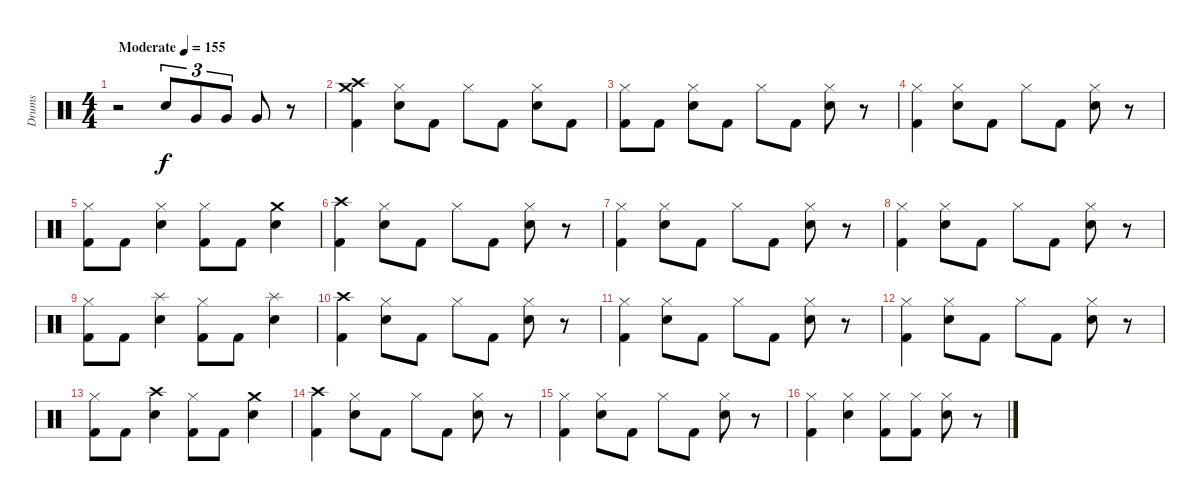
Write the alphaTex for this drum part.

\track ("Drums" "Drums") {instrument percussion}
\staff {score}
\articulation defaults
\ts (4 4)
\tempo (155 "Moderate")
\clef neutral
\ks c
r.2{dy f} "Snare (hit) 2".8{tu (3 2)} "Very Low Tom (hit)".8{tu (3 2)} "Very Low Tom (hit)".8{tu (3 2)} "Very Low Tom (hit)".8 r.8 |
("Crash high (hit)" "Crash medium (hit)" "Kick (hit) 2").4 ("Hi-Hat (closed)" "Snare (hit) 2").8 "Kick (hit) 2".8 "Hi-Hat (closed)".8 "Kick (hit) 2".8 ("Hi-Hat (closed)" "Snare (hit) 2").8 "Kick (hit) 2".8 |
("Hi-Hat (closed)" "Kick (hit) 2").8 "Kick (hit) 2".8 ("Hi-Hat (closed)" "Snare (hit) 2").8 "Kick (hit) 2".8 "Hi-Hat (closed)".8 "Kick (hit) 2".8 ("Hi-Hat (closed)" "Snare (hit) 2").8 r.8 |
("Hi-Hat (closed)" "Kick (hit) 2").4 ("Hi-Hat (closed)" "Snare (hit) 2").8 "Kick (hit) 2".8 "Hi-Hat (closed)".8 "Kick (hit) 2".8 ("Hi-Hat (closed)" "Snare (hit) 2").8 r.8 |
("Hi-Hat (closed)" "Kick (hit) 2").8 "Kick (hit) 2".8 ("Hi-Hat (closed)" "Snare (hit) 2").4 ("Hi-Hat (closed)" "Kick (hit) 2").8 "Kick (hit) 2".8 ("Crash medium (hit)" "Snare (hit) 2").4 |
("Crash high (hit)" "Kick (hit) 2").4 ("Hi-Hat (closed)" "Snare (hit) 2").8 "Kick (hit) 2".8 "Hi-Hat (closed)".8 "Kick (hit) 2".8 ("Hi-Hat (closed)" "Snare (hit) 2").8 r.8 |
("Hi-Hat (closed)" "Kick (hit) 2").4 ("Hi-Hat (closed)" "Snare (hit) 2").8 "Kick (hit) 2".8 "Hi-Hat (closed)".8 "Kick (hit) 2".8 ("Hi-Hat (closed)" "Snare (hit) 2").8 r.8 |
("Hi-Hat (closed)" "Kick (hit) 2").4 ("Hi-Hat (closed)" "Snare (hit) 2").8 "Kick (hit) 2".8 "Hi-Hat (closed)".8 "Kick (hit) 2".8 ("Hi-Hat (closed)" "Snare (hit) 2").8 r.8 |
("Hi-Hat (closed)" "Kick (hit) 2").8 "Kick (hit) 2".8 ("Splash (hit)" "Snare (hit) 2").4 ("Hi-Hat (closed)" "Kick (hit) 2").8 "Kick (hit) 2".8 ("Splash (hit)" "Snare (hit) 2").4 |
("Crash high (hit)" "Kick (hit) 2").4 ("Hi-Hat (closed)" "Snare (hit) 2").8 "Kick (hit) 2".8 "Hi-Hat (closed)".8 "Kick (hit) 2".8 ("Hi-Hat (closed)" "Snare (hit) 2").8 r.8 |
("Hi-Hat (closed)" "Kick (hit) 2").4 ("Hi-Hat (closed)" "Snare (hit) 2").8 "Kick (hit) 2".8 "Hi-Hat (closed)".8 "Kick (hit) 2".8 ("Hi-Hat (closed)" "Snare (hit) 2").8 r.8 |
("Hi-Hat (closed)" "Kick (hit) 2").4 ("Hi-Hat (closed)" "Snare (hit) 2").8 "Kick (hit) 2".8 "Hi-Hat (closed)".8 "Kick (hit) 2".8 ("Hi-Hat (closed)" "Snare (hit) 2").8 r.8 |
("Hi-Hat (closed)" "Kick (hit) 2").8 "Kick (hit) 2".8 ("Crash high (hit)" "Snare (hit) 2").4 ("Hi-Hat (closed)" "Kick (hit) 2").8 "Kick (hit) 2".8 ("Crash medium (hit)" "Snare (hit) 2").4 |
("Crash high (hit)" "Kick (hit) 2").4 ("Hi-Hat (closed)" "Snare (hit) 2").8 "Kick (hit) 2".8 "Hi-Hat (closed)".8 "Kick (hit) 2".8 ("Hi-Hat (closed)" "Snare (hit) 2").8 r.8 |
("Hi-Hat (closed)" "Kick (hit) 2").4 ("Hi-Hat (closed)" "Snare (hit) 2").8 "Kick (hit) 2".8 "Hi-Hat (closed)".8 "Kick (hit) 2".8 ("Hi-Hat (closed)" "Snare (hit) 2").8 r.8 |
("Hi-Hat (closed)" "Kick (hit) 2").4 ("Hi-Hat (closed)" "Snare (hit) 2").4 ("Hi-Hat (closed)" "Kick (hit) 2").8 ("Hi-Hat (closed)" "Kick (hit) 2").8 ("Hi-Hat (closed)" "Snare (hit) 2").8 r.8
